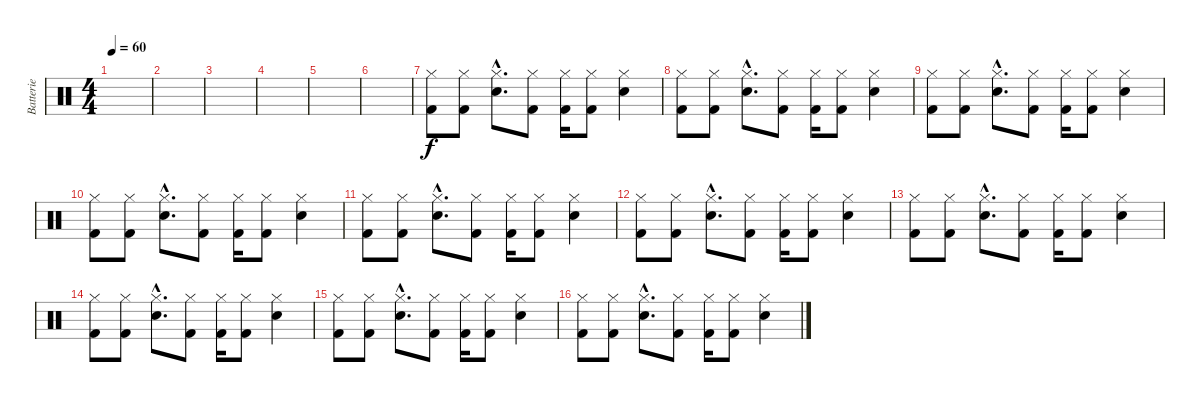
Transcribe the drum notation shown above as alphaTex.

\track ("Batterie" "Batterie") {instrument percussion}
\staff {score}
\articulation defaults
\ts (4 4)
\tempo 60
\clef neutral
\ks c
|
|
|
|
|
|
("Hi-Hat (closed)" "Kick (hit) 2").8 ("Hi-Hat (closed)" "Kick (hit) 2").8 ("Hi-Hat (closed)"{hac} "Snare (hit) 2"{hac}).8{d} ("Hi-Hat (closed)" "Kick (hit) 2").8 ("Hi-Hat (closed)" "Kick (hit) 2").16 ("Hi-Hat (closed)" "Kick (hit) 2").8 ("Hi-Hat (closed)" "Snare (hit) 2").4 |
("Hi-Hat (closed)" "Kick (hit) 2").8 ("Hi-Hat (closed)" "Kick (hit) 2").8 ("Hi-Hat (closed)"{hac} "Snare (hit) 2"{hac}).8{d} ("Hi-Hat (closed)" "Kick (hit) 2").8 ("Hi-Hat (closed)" "Kick (hit) 2").16 ("Hi-Hat (closed)" "Kick (hit) 2").8 ("Hi-Hat (closed)" "Snare (hit) 2").4 |
("Hi-Hat (closed)" "Kick (hit) 2").8 ("Hi-Hat (closed)" "Kick (hit) 2").8 ("Hi-Hat (closed)"{hac} "Snare (hit) 2"{hac}).8{d} ("Hi-Hat (closed)" "Kick (hit) 2").8 ("Hi-Hat (closed)" "Kick (hit) 2").16 ("Hi-Hat (closed)" "Kick (hit) 2").8 ("Hi-Hat (closed)" "Snare (hit) 2").4 |
("Hi-Hat (closed)" "Kick (hit) 2").8 ("Hi-Hat (closed)" "Kick (hit) 2").8 ("Hi-Hat (closed)"{hac} "Snare (hit) 2"{hac}).8{d} ("Hi-Hat (closed)" "Kick (hit) 2").8 ("Hi-Hat (closed)" "Kick (hit) 2").16 ("Hi-Hat (closed)" "Kick (hit) 2").8 ("Hi-Hat (closed)" "Snare (hit) 2").4 |
("Hi-Hat (closed)" "Kick (hit) 2").8 ("Hi-Hat (closed)" "Kick (hit) 2").8 ("Hi-Hat (closed)"{hac} "Snare (hit) 2"{hac}).8{d} ("Hi-Hat (closed)" "Kick (hit) 2").8 ("Hi-Hat (closed)" "Kick (hit) 2").16 ("Hi-Hat (closed)" "Kick (hit) 2").8 ("Hi-Hat (closed)" "Snare (hit) 2").4 |
("Hi-Hat (closed)" "Kick (hit) 2").8 ("Hi-Hat (closed)" "Kick (hit) 2").8 ("Hi-Hat (closed)"{hac} "Snare (hit) 2"{hac}).8{d} ("Hi-Hat (closed)" "Kick (hit) 2").8 ("Hi-Hat (closed)" "Kick (hit) 2").16 ("Hi-Hat (closed)" "Kick (hit) 2").8 ("Hi-Hat (closed)" "Snare (hit) 2").4 |
("Hi-Hat (closed)" "Kick (hit) 2").8 ("Hi-Hat (closed)" "Kick (hit) 2").8 ("Hi-Hat (closed)"{hac} "Snare (hit) 2"{hac}).8{d} ("Hi-Hat (closed)" "Kick (hit) 2").8 ("Hi-Hat (closed)" "Kick (hit) 2").16 ("Hi-Hat (closed)" "Kick (hit) 2").8 ("Hi-Hat (closed)" "Snare (hit) 2").4 |
("Hi-Hat (closed)" "Kick (hit) 2").8 ("Hi-Hat (closed)" "Kick (hit) 2").8 ("Hi-Hat (closed)"{hac} "Snare (hit) 2"{hac}).8{d} ("Hi-Hat (closed)" "Kick (hit) 2").8 ("Hi-Hat (closed)" "Kick (hit) 2").16 ("Hi-Hat (closed)" "Kick (hit) 2").8 ("Hi-Hat (closed)" "Snare (hit) 2").4 |
("Hi-Hat (closed)" "Kick (hit) 2").8 ("Hi-Hat (closed)" "Kick (hit) 2").8 ("Hi-Hat (closed)"{hac} "Snare (hit) 2"{hac}).8{d} ("Hi-Hat (closed)" "Kick (hit) 2").8 ("Hi-Hat (closed)" "Kick (hit) 2").16 ("Hi-Hat (closed)" "Kick (hit) 2").8 ("Hi-Hat (closed)" "Snare (hit) 2").4 |
("Hi-Hat (closed)" "Kick (hit) 2").8 ("Hi-Hat (closed)" "Kick (hit) 2").8 ("Hi-Hat (closed)"{hac} "Snare (hit) 2"{hac}).8{d} ("Hi-Hat (closed)" "Kick (hit) 2").8 ("Hi-Hat (closed)" "Kick (hit) 2").16 ("Hi-Hat (closed)" "Kick (hit) 2").8 ("Hi-Hat (closed)" "Snare (hit) 2").4
